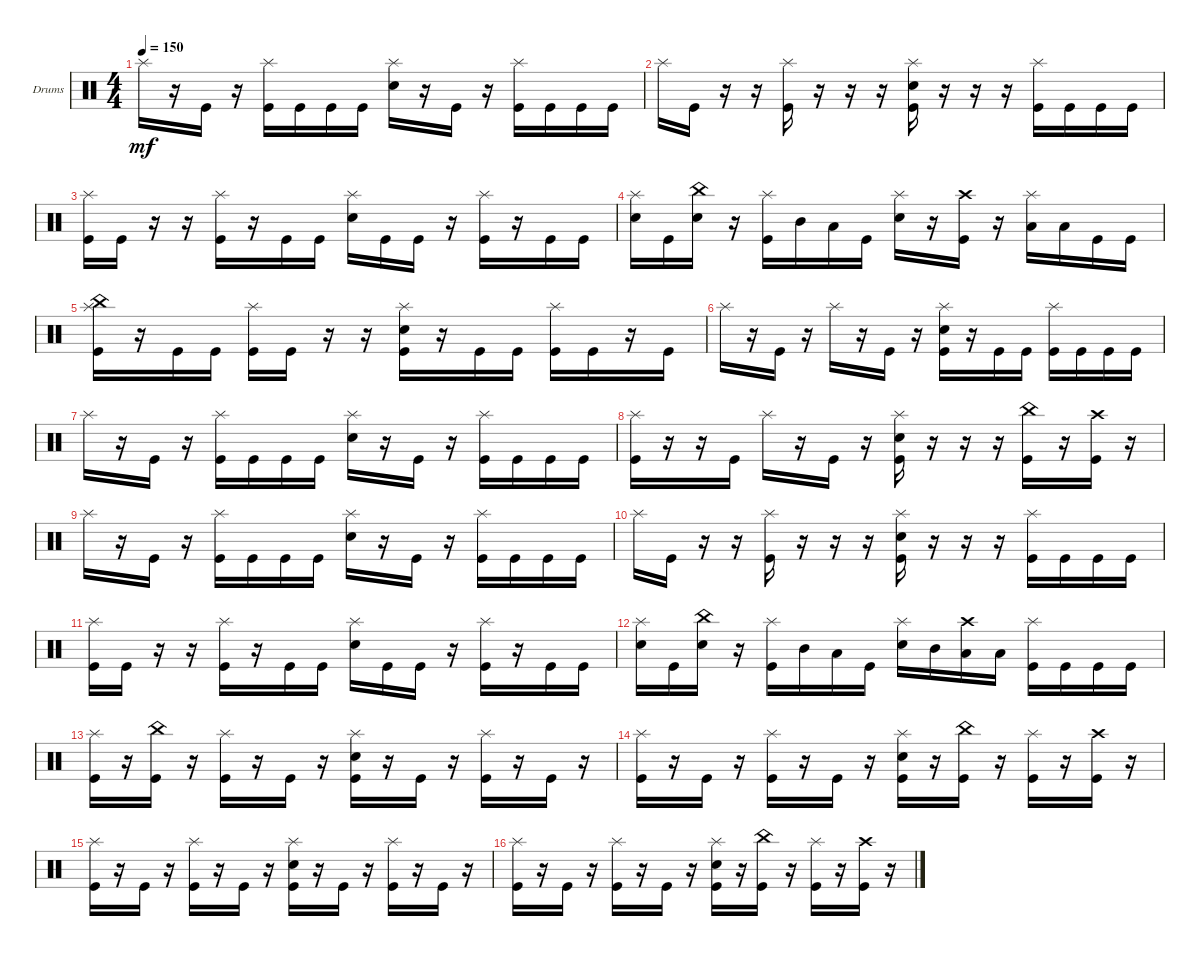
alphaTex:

\defaultSystemsLayout 4
\bracketExtendMode groupsimilarinstruments
\firstSystemTrackNameOrientation horizontal
\otherSystemsTrackNameOrientation horizontal
\track ("Drumkit" "Drums") {instrument percussion}
\staff {score}
\articulation defaults
\ts (4 4)
\tempo 150
\clef neutral
\ks c "Splash (hit)".16{dy mf}
r.16 "Kick (hit)".16 r.16 ("Kick (hit)" "Splash (hit)").16 "Kick (hit)".16 "Kick (hit)".16 "Kick (hit)".16 ("Splash (hit)" "Snare (hit) 2").16 r.16 "Kick (hit)".16 r.16 ("Kick (hit)" "Splash (hit)").16 "Kick (hit)".16 "Kick (hit)".16 "Kick (hit)".16 |
"Splash (hit)".16 "Kick (hit)".16 r.16 r.16 ("Kick (hit)" "Splash (hit)").16 r.16 r.16 r.16 ("Kick (hit)" "Splash (hit)" "Snare (hit) 2").16 r.16 r.16 r.16 ("Kick (hit)" "Splash (hit)").16 "Kick (hit)".16 "Kick (hit)".16 "Kick (hit)".16 |
("Kick (hit)" "Splash (hit)").16 "Kick (hit)".16 r.16 r.16 ("Kick (hit)" "Splash (hit)").16 r.16 "Kick (hit)".16 "Kick (hit)".16 ("Splash (hit)" "Snare (hit) 2").16 "Kick (hit)".16 "Kick (hit)".16 r.16 ("Kick (hit)" "Splash (hit)").16 r.16 "Kick (hit)".16 "Kick (hit)".16 |
("Splash (hit)" "Snare (hit) 2").16 "Kick (hit)".16 ("Snare (hit) 2" "China (hit)").16 r.16 ("Kick (hit)" "Splash (hit)").16 "Mid Tom (hit)".16 "Low Tom (hit)".16 "Kick (hit)".16 ("Splash (hit)" "Snare (hit) 2").16 r.16 ("Crash high (hit)" "Kick (hit)").16 r.16 ("Splash (hit)" "Low Tom (hit)").16 "Low Tom (hit)".16 "Kick (hit)".16 "Kick (hit)".16 |
("Kick (hit)" "Splash (hit)" "China (hit)").16 r.16 "Kick (hit)".16 "Kick (hit)".16 ("Kick (hit)" "Splash (hit)").16 "Kick (hit)".16 r.16 r.16 ("Kick (hit)" "Splash (hit)" "Snare (hit) 2").16 r.16 "Kick (hit)".16 "Kick (hit)".16 ("Kick (hit)" "Splash (hit)").16 "Kick (hit)".16 r.16 "Kick (hit)".16 |
"Splash (hit)".16 r.16 "Kick (hit)".16 r.16 "Splash (hit)".16 r.16 "Kick (hit)".16 r.16 ("Kick (hit)" "Splash (hit)" "Snare (hit) 2").16 r.16 "Kick (hit)".16 "Kick (hit)".16 ("Kick (hit)" "Splash (hit)").16 "Kick (hit)".16 "Kick (hit)".16 "Kick (hit)".16 |
"Splash (hit)".16 r.16 "Kick (hit)".16 r.16 ("Kick (hit)" "Splash (hit)").16 "Kick (hit)".16 "Kick (hit)".16 "Kick (hit)".16 ("Splash (hit)" "Snare (hit) 2").16 r.16 "Kick (hit)".16 r.16 ("Kick (hit)" "Splash (hit)").16 "Kick (hit)".16 "Kick (hit)".16 "Kick (hit)".16 |
("Kick (hit)" "Splash (hit)").16 r.16 r.16 "Kick (hit)".16 "Splash (hit)".16 r.16 "Kick (hit)".16 r.16 ("Kick (hit)" "Splash (hit)" "Snare (hit) 2").16 r.16 r.16 r.16 ("Kick (hit)" "China (hit)").16 r.16 ("Kick (hit)" "Crash high (hit)").16 r.16 |
"Splash (hit)".16 r.16 "Kick (hit)".16 r.16 ("Kick (hit)" "Splash (hit)").16 "Kick (hit)".16 "Kick (hit)".16 "Kick (hit)".16 ("Splash (hit)" "Snare (hit) 2").16 r.16 "Kick (hit)".16 r.16 ("Kick (hit)" "Splash (hit)").16 "Kick (hit)".16 "Kick (hit)".16 "Kick (hit)".16 |
"Splash (hit)".16 "Kick (hit)".16 r.16 r.16 ("Kick (hit)" "Splash (hit)").16 r.16 r.16 r.16 ("Kick (hit)" "Splash (hit)" "Snare (hit) 2").16 r.16 r.16 r.16 ("Kick (hit)" "Splash (hit)").16 "Kick (hit)".16 "Kick (hit)".16 "Kick (hit)".16 |
("Kick (hit)" "Splash (hit)").16 "Kick (hit)".16 r.16 r.16 ("Kick (hit)" "Splash (hit)").16 r.16 "Kick (hit)".16 "Kick (hit)".16 ("Splash (hit)" "Snare (hit) 2").16 "Kick (hit)".16 "Kick (hit)".16 r.16 ("Kick (hit)" "Splash (hit)").16 r.16 "Kick (hit)".16 "Kick (hit)".16 |
("Splash (hit)" "Snare (hit) 2").16 "Kick (hit)".16 ("Snare (hit) 2" "China (hit)").16 r.16 ("Kick (hit)" "Splash (hit)").16 "Mid Tom (hit)".16 "Low Tom (hit)".16 "Kick (hit)".16 ("Splash (hit)" "Snare (hit) 2").16 "Mid Tom (hit)".16 ("Low Tom (hit)" "Crash high (hit)").16 "Low Tom (hit)".16 ("Splash (hit)" "Kick (hit)").16 "Kick (hit)".16 "Kick (hit)".16 "Kick (hit)".16 |
("Kick (hit)" "Splash (hit)").16 r.16 ("Kick (hit)" "China (hit)").16 r.16 ("Kick (hit)" "Splash (hit)").16 r.16 "Kick (hit)".16 r.16 ("Kick (hit)" "Snare (hit) 2" "Splash (hit)").16 r.16 "Kick (hit)".16 r.16 ("Kick (hit)" "Splash (hit)").16 r.16 "Kick (hit)".16 r.16 |
("Kick (hit)" "Splash (hit)").16 r.16 "Kick (hit)".16 r.16 ("Kick (hit)" "Splash (hit)").16 r.16 "Kick (hit)".16 r.16 ("Kick (hit)" "Snare (hit) 2" "Splash (hit)").16 r.16 ("Kick (hit)" "China (hit)").16 r.16 ("Kick (hit)" "Splash (hit)").16 r.16 ("Kick (hit)" "Crash high (hit)").16 r.16 |
("Kick (hit)" "Splash (hit)").16 r.16 "Kick (hit)".16 r.16 ("Kick (hit)" "Splash (hit)").16 r.16 "Kick (hit)".16 r.16 ("Kick (hit)" "Snare (hit) 2" "Splash (hit)").16 r.16 "Kick (hit)".16 r.16 ("Kick (hit)" "Splash (hit)").16 r.16 "Kick (hit)".16 r.16 |
("Kick (hit)" "Splash (hit)").16 r.16 "Kick (hit)".16 r.16 ("Kick (hit)" "Splash (hit)").16 r.16 "Kick (hit)".16 r.16 ("Kick (hit)" "Snare (hit) 2" "Splash (hit)").16 r.16 ("Kick (hit)" "China (hit)").16 r.16 ("Kick (hit)" "Splash (hit)").16 r.16 ("Kick (hit)" "Crash high (hit)").16 r.16
